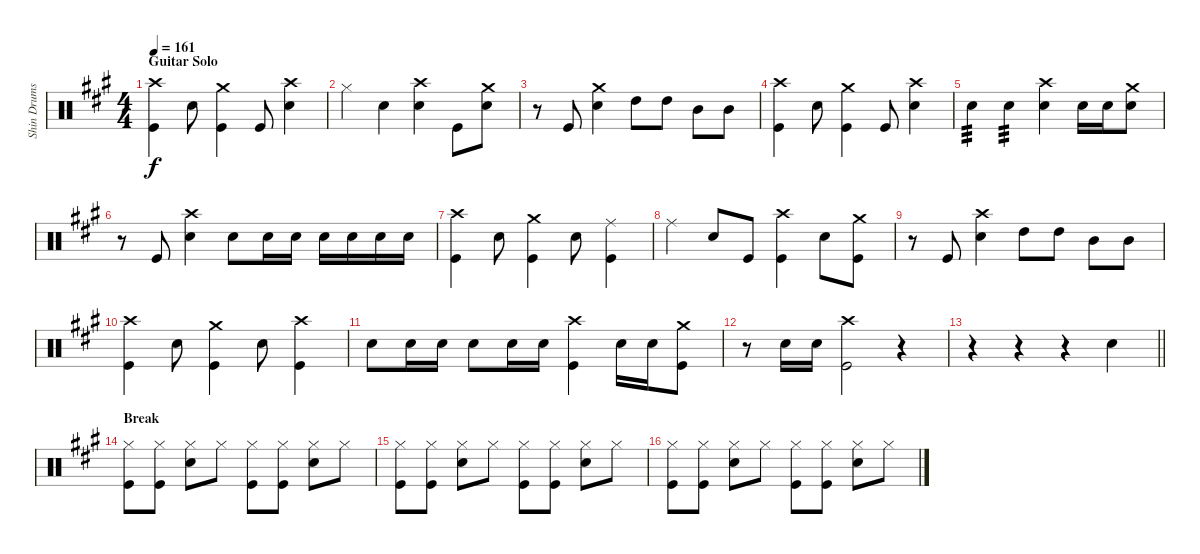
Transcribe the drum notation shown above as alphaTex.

\track ("Shin Drums" "Shin Drums") {instrument percussion}
\staff {score}
\articulation defaults
\ts (4 4)
\section ("" "Guitar Solo")
\tempo 161
\clef neutral
\ks a
("Crash high (hit)" "Kick (hit)").4{dy f} "Snare (hit) 2".8 ("Crash medium (hit)" "Kick (hit)").4 "Kick (hit)".8 ("Crash high (hit)" "Snare (hit) 2").4 |
"Hi-Hat (closed)".4 "Snare (hit) 2".4 ("Crash high (hit)" "Snare (hit) 2").4 "Kick (hit)".8 ("Crash medium (hit)" "Snare (hit) 2").8 |
r.8 "Kick (hit)".8 ("Crash medium (hit)" "Snare (hit) 2").4 "High Tom (hit)".8 "High Tom (hit)".8 "Mid Tom (hit)".8 "Mid Tom (hit)".8 |
("Crash high (hit)" "Kick (hit)").4 "Snare (hit) 2".8 ("Crash medium (hit)" "Kick (hit)").4 "Kick (hit)".8 ("Crash high (hit)" "Snare (hit) 2").4 |
"Snare (hit) 2".4{tp 3} "Snare (hit) 2".4{tp 3} ("Crash high (hit)" "Snare (hit) 2").4 "Snare (hit) 2".16 "Snare (hit) 2".16 ("Crash medium (hit)" "Snare (hit) 2").8 |
r.8 "Kick (hit)".8 ("Crash high (hit)" "Snare (hit) 2").4 "Snare (hit) 2".8 "Snare (hit) 2".16 "Snare (hit) 2".16 "Snare (hit) 2".16 "Snare (hit) 2".16 "Snare (hit) 2".16 "Snare (hit) 2".16 |
("Crash high (hit)" "Kick (hit)").4 "Snare (hit) 2".8 ("Crash medium (hit)" "Kick (hit)").4 "Snare (hit) 2".8 ("Ride (middle)" "Kick (hit)").4 |
"Ride (middle)".4 "Snare (hit) 2".8 "Kick (hit)".8 ("Crash high (hit)" "Kick (hit)").4 "Snare (hit) 2".8 ("Crash medium (hit)" "Kick (hit)").8 |
r.8 "Kick (hit)".8 ("Crash high (hit)" "Snare (hit) 2").4 "High Tom (hit)".8 "High Tom (hit)".8 "Mid Tom (hit)".8 "Mid Tom (hit)".8 |
("Crash high (hit)" "Kick (hit)").4 "Snare (hit) 2".8 ("Crash medium (hit)" "Kick (hit)").4 "Snare (hit) 2".8 ("Crash high (hit)" "Kick (hit)").4 |
"Snare (hit) 2".8 "Snare (hit) 2".16 "Snare (hit) 2".16 "Snare (hit) 2".8 "Snare (hit) 2".16 "Snare (hit) 2".16 ("Crash high (hit)" "Kick (hit)").4 "Snare (hit) 2".16 "Snare (hit) 2".16 ("Crash medium (hit)" "Kick (hit)").8 |
r.8 "Snare (hit) 2".16 "Snare (hit) 2".16 ("Crash high (hit)" "Kick (hit)").2 r.4 |
\barLineRight lightlight
r.4 r.4 r.4 "Snare (hit) 2".4 |
\section ("" "Break")
("Hi-Hat (closed)" "Kick (hit)").8 ("Hi-Hat (closed)" "Kick (hit)").8 ("Hi-Hat (closed)" "Snare (hit) 2").8 "Hi-Hat (closed)".8 ("Hi-Hat (closed)" "Kick (hit)").8 ("Hi-Hat (closed)" "Kick (hit)").8 ("Hi-Hat (closed)" "Snare (hit) 2").8 "Hi-Hat (closed)".8 |
("Hi-Hat (closed)" "Kick (hit)").8 ("Hi-Hat (closed)" "Kick (hit)").8 ("Hi-Hat (closed)" "Snare (hit) 2").8 "Hi-Hat (closed)".8 ("Hi-Hat (closed)" "Kick (hit)").8 ("Hi-Hat (closed)" "Kick (hit)").8 ("Hi-Hat (closed)" "Snare (hit) 2").8 "Hi-Hat (closed)".8 |
("Hi-Hat (closed)" "Kick (hit)").8 ("Hi-Hat (closed)" "Kick (hit)").8 ("Hi-Hat (closed)" "Snare (hit) 2").8 "Hi-Hat (closed)".8 ("Hi-Hat (closed)" "Kick (hit)").8 ("Hi-Hat (closed)" "Kick (hit)").8 ("Hi-Hat (closed)" "Snare (hit) 2").8 "Hi-Hat (closed)".8
